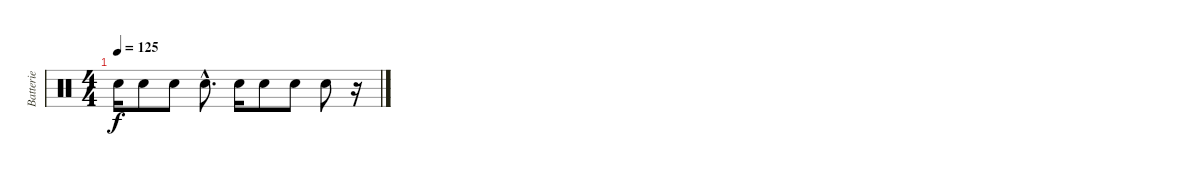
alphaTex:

\track ("Batterie" "Batterie") {instrument percussion}
\staff {score}
\articulation defaults
\ts (4 4)
\tempo 125
\clef neutral
\ks c "Electric Snare (hit)".16{dy f} "Electric Snare (hit)".8 "Electric Snare (hit)".8 "Electric Snare (hit)"{hac}.8{d} "Electric Snare (hit)".16 "Electric Snare (hit)".8 "Electric Snare (hit)".8 "Electric Snare (hit)".8
r.16
